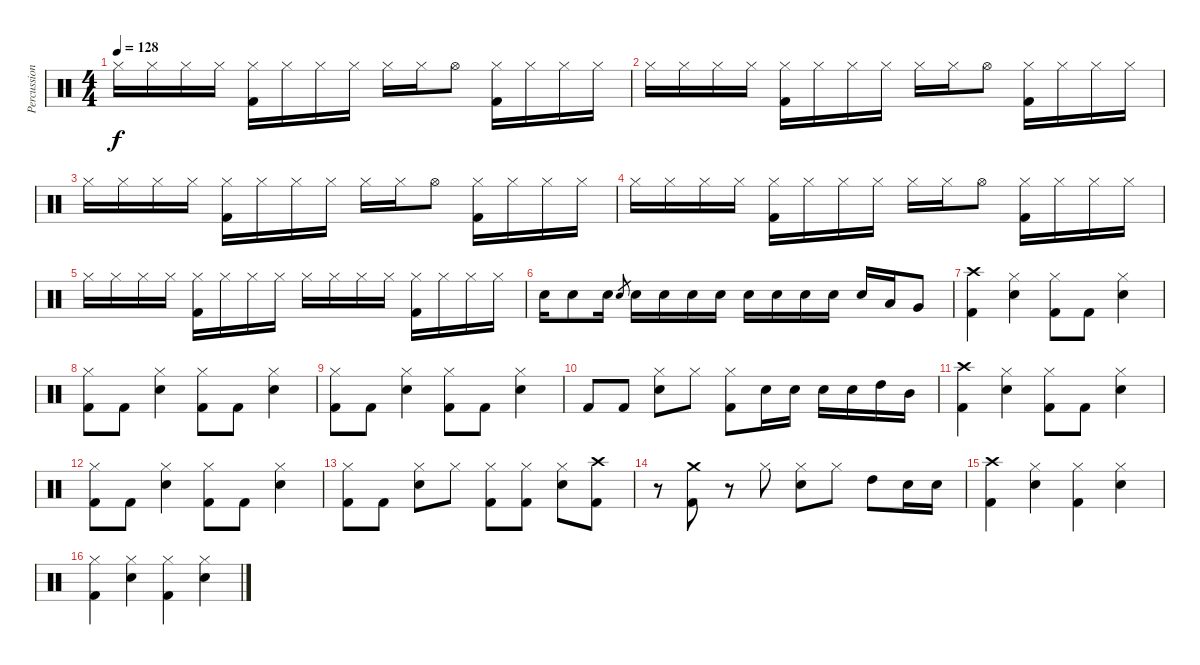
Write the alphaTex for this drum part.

\track ("Percussion" "Percussion") {instrument percussion}
\staff {score}
\articulation defaults
\ts (4 4)
\tempo 128
\clef neutral
\ks c "Hi-Hat (closed)".16{dy f} "Hi-Hat (closed)".16 "Hi-Hat (closed)".16 "Hi-Hat (closed)".16
("Kick (hit) 2" "Hi-Hat (closed)").16 "Hi-Hat (closed)".16 "Hi-Hat (closed)".16 "Hi-Hat (closed)".16 "Hi-Hat (closed)".16 "Hi-Hat (closed)".16 "Hi-Hat (open)".8 ("Kick (hit) 2" "Hi-Hat (closed)").16 "Hi-Hat (closed)".16 "Hi-Hat (closed)".16 "Hi-Hat (closed)".16 |
"Hi-Hat (closed)".16 "Hi-Hat (closed)".16 "Hi-Hat (closed)".16 "Hi-Hat (closed)".16 ("Kick (hit) 2" "Hi-Hat (closed)").16 "Hi-Hat (closed)".16 "Hi-Hat (closed)".16 "Hi-Hat (closed)".16 "Hi-Hat (closed)".16 "Hi-Hat (closed)".16 "Hi-Hat (open)".8 ("Kick (hit) 2" "Hi-Hat (closed)").16 "Hi-Hat (closed)".16 "Hi-Hat (closed)".16 "Hi-Hat (closed)".16 |
"Hi-Hat (closed)".16 "Hi-Hat (closed)".16 "Hi-Hat (closed)".16 "Hi-Hat (closed)".16 ("Kick (hit) 2" "Hi-Hat (closed)").16 "Hi-Hat (closed)".16 "Hi-Hat (closed)".16 "Hi-Hat (closed)".16 "Hi-Hat (closed)".16 "Hi-Hat (closed)".16 "Hi-Hat (open)".8 ("Kick (hit) 2" "Hi-Hat (closed)").16 "Hi-Hat (closed)".16 "Hi-Hat (closed)".16 "Hi-Hat (closed)".16 |
"Hi-Hat (closed)".16 "Hi-Hat (closed)".16 "Hi-Hat (closed)".16 "Hi-Hat (closed)".16 ("Kick (hit) 2" "Hi-Hat (closed)").16 "Hi-Hat (closed)".16 "Hi-Hat (closed)".16 "Hi-Hat (closed)".16 "Hi-Hat (closed)".16 "Hi-Hat (closed)".16 "Hi-Hat (open)".8 ("Kick (hit) 2" "Hi-Hat (closed)").16 "Hi-Hat (closed)".16 "Hi-Hat (closed)".16 "Hi-Hat (closed)".16 |
"Hi-Hat (closed)".16 "Hi-Hat (closed)".16 "Hi-Hat (closed)".16 "Hi-Hat (closed)".16 ("Kick (hit) 2" "Hi-Hat (closed)").16 "Hi-Hat (closed)".16 "Hi-Hat (closed)".16 "Hi-Hat (closed)".16 "Hi-Hat (closed)".16 "Hi-Hat (closed)".16 "Hi-Hat (closed)".16 "Hi-Hat (closed)".16 ("Kick (hit) 2" "Hi-Hat (closed)").16 "Hi-Hat (closed)".16 "Hi-Hat (closed)".16 "Hi-Hat (closed)".16 |
"Snare (hit) 2".16 "Snare (hit) 2".8 "Snare (hit) 2".16 "Snare (hit) 2".8{gr} "Snare (hit) 2".16 "Snare (hit) 2".16 "Snare (hit) 2".16 "Snare (hit) 2".16 "Snare (hit) 2".16 "Snare (hit) 2".16 "Snare (hit) 2".16 "Snare (hit) 2".16 "Snare (hit) 2".16 "Low Tom (hit)".16 "Very Low Tom (hit)".8 |
("Kick (hit) 2" "Crash high (hit)").4 ("Snare (hit) 2" "Hi-Hat (closed)").4 ("Kick (hit) 2" "Hi-Hat (closed)").8 "Kick (hit) 2".8 ("Snare (hit) 2" "Hi-Hat (closed)").4 |
("Kick (hit) 2" "Hi-Hat (closed)").8 "Kick (hit) 2".8 ("Snare (hit) 2" "Hi-Hat (closed)").4 ("Kick (hit) 2" "Hi-Hat (closed)").8 "Kick (hit) 2".8 ("Snare (hit) 2" "Hi-Hat (closed)").4 |
("Kick (hit) 2" "Hi-Hat (closed)").8 "Kick (hit) 2".8 ("Snare (hit) 2" "Hi-Hat (closed)").4 ("Kick (hit) 2" "Hi-Hat (closed)").8 "Kick (hit) 2".8 ("Snare (hit) 2" "Hi-Hat (closed)").4 |
"Kick (hit) 2".8 "Kick (hit) 2".8 ("Snare (hit) 2" "Hi-Hat (closed)").8 "Hi-Hat (closed)".8 ("Kick (hit) 2" "Hi-Hat (closed)").8 "Snare (hit) 2".16 "Snare (hit) 2".16 "Snare (hit) 2".16 "Snare (hit) 2".16 "High Tom (hit)".16 "Mid Tom (hit)".16 |
("Kick (hit) 2" "Crash high (hit)").4 ("Snare (hit) 2" "Hi-Hat (closed)").4 ("Kick (hit) 2" "Hi-Hat (closed)").8 "Kick (hit) 2".8 ("Snare (hit) 2" "Hi-Hat (closed)").4 |
("Kick (hit) 2" "Hi-Hat (closed)").8 "Kick (hit) 2".8 ("Snare (hit) 2" "Hi-Hat (closed)").4 ("Kick (hit) 2" "Hi-Hat (closed)").8 "Kick (hit) 2".8 ("Snare (hit) 2" "Hi-Hat (closed)").4 |
("Kick (hit) 2" "Hi-Hat (closed)").8 "Kick (hit) 2".8 ("Snare (hit) 2" "Hi-Hat (closed)").8 "Hi-Hat (closed)".8 ("Kick (hit) 2" "Hi-Hat (closed)").8 ("Kick (hit) 2" "Hi-Hat (closed)").8 ("Snare (hit) 2" "Hi-Hat (closed)").8 ("Kick (hit) 2" "Crash high (hit)").8 |
r.8 ("Kick (hit) 2" "Crash medium (hit)").8 r.8 "Hi-Hat (closed)".8 ("Snare (hit) 2" "Hi-Hat (closed)").8 "Hi-Hat (closed)".8 "High Tom (hit)".8 "Snare (hit) 2".16 "Snare (hit) 2".16 |
("Kick (hit) 2" "Crash high (hit)").4 ("Snare (hit) 2" "Hi-Hat (closed)").4 ("Kick (hit) 2" "Hi-Hat (closed)").4 ("Snare (hit) 2" "Hi-Hat (closed)").4 |
("Kick (hit) 2" "Hi-Hat (closed)").4 ("Snare (hit) 2" "Hi-Hat (closed)").4 ("Kick (hit) 2" "Hi-Hat (closed)").4 ("Snare (hit) 2" "Hi-Hat (closed)").4
